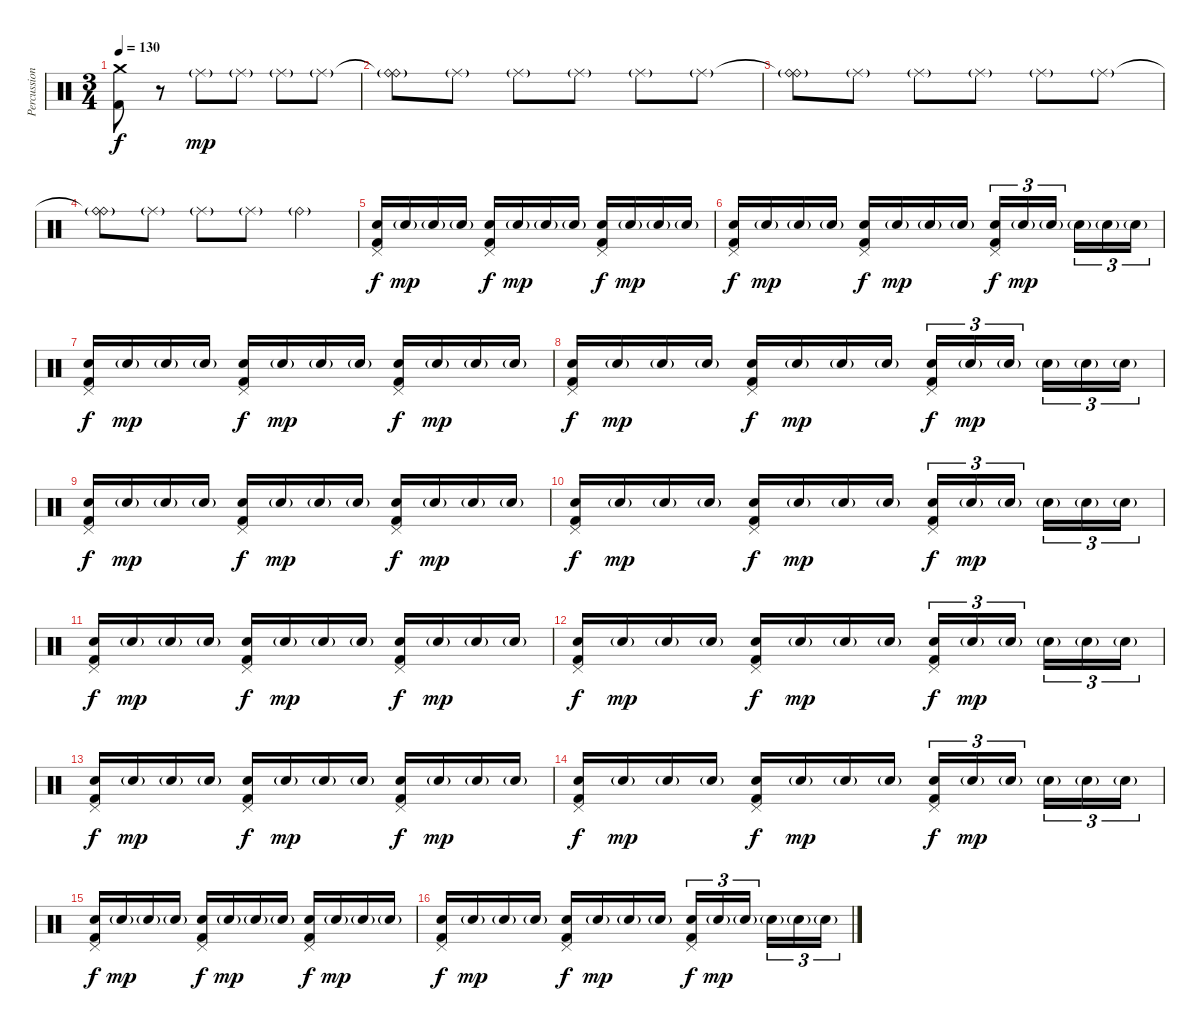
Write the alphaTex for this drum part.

\track ("Percussion" "Percussion") {instrument percussion}
\staff {score}
\articulation defaults
\ts (3 4)
\tempo 130
\clef neutral
\ks c
("Crash medium (hit)" "Kick (hit) 2").8{dy f} r.8 "Ride (middle)"{g}.8{dy mp} "Ride (middle)"{g}.8 "Ride (middle)"{g}.8 "Ride (middle)"{g}.8 |
("Ride (bell)"{t} "Ride (bell)"{g}).8 "Ride (middle)"{g}.8 "Ride (middle)"{g}.8 "Ride (middle)"{g}.8 "Ride (middle)"{g}.8 "Ride (middle)"{g}.8 |
("Ride (bell)"{t} "Ride (bell)"{g}).8 "Ride (middle)"{g}.8 "Ride (middle)"{g}.8 "Ride (middle)"{g}.8 "Ride (middle)"{g}.8 "Ride (middle)"{g}.8 |
("Ride (bell)"{t} "Ride (bell)"{g}).8 "Ride (middle)"{g}.8 "Ride (middle)"{g}.8 "Ride (middle)"{g}.8 "Ride (bell)"{g}.4 |
("Pedal Hi-Hat (hit)" "Electric Snare (hit)" "Kick (hit) 2").16{dy f volume 11} "Electric Snare (hit)"{g}.16{dy mp} "Electric Snare (hit)"{g}.16 "Electric Snare (hit)"{g}.16 ("Pedal Hi-Hat (hit)" "Electric Snare (hit)" "Kick (hit) 2").16{dy f} "Electric Snare (hit)"{g}.16{dy mp} "Electric Snare (hit)"{g}.16 "Electric Snare (hit)"{g}.16 ("Pedal Hi-Hat (hit)" "Electric Snare (hit)" "Kick (hit) 2").16{dy f} "Electric Snare (hit)"{g}.16{dy mp} "Electric Snare (hit)"{g}.16 "Electric Snare (hit)"{g}.16 |
("Pedal Hi-Hat (hit)" "Electric Snare (hit)" "Kick (hit) 2").16{dy f} "Electric Snare (hit)"{g}.16{dy mp} "Electric Snare (hit)"{g}.16 "Electric Snare (hit)"{g}.16 ("Pedal Hi-Hat (hit)" "Electric Snare (hit)" "Kick (hit) 2").16{dy f} "Electric Snare (hit)"{g}.16{dy mp} "Electric Snare (hit)"{g}.16 "Electric Snare (hit)"{g}.16 ("Pedal Hi-Hat (hit)" "Electric Snare (hit)" "Kick (hit) 2").16{tu (3 2) dy f} "Electric Snare (hit)"{g}.16{tu (3 2) dy mp} "Electric Snare (hit)"{g}.16{tu (3 2)} "Electric Snare (hit)"{g}.16{tu (3 2)} "Electric Snare (hit)"{g}.16{tu (3 2)} "Electric Snare (hit)"{g}.16{tu (3 2)} |
("Pedal Hi-Hat (hit)" "Electric Snare (hit)" "Kick (hit) 2").16{dy f volume 11} "Electric Snare (hit)"{g}.16{dy mp} "Electric Snare (hit)"{g}.16 "Electric Snare (hit)"{g}.16 ("Pedal Hi-Hat (hit)" "Electric Snare (hit)" "Kick (hit) 2").16{dy f} "Electric Snare (hit)"{g}.16{dy mp} "Electric Snare (hit)"{g}.16 "Electric Snare (hit)"{g}.16 ("Pedal Hi-Hat (hit)" "Electric Snare (hit)" "Kick (hit) 2").16{dy f} "Electric Snare (hit)"{g}.16{dy mp} "Electric Snare (hit)"{g}.16 "Electric Snare (hit)"{g}.16 |
("Pedal Hi-Hat (hit)" "Electric Snare (hit)" "Kick (hit) 2").16{dy f} "Electric Snare (hit)"{g}.16{dy mp} "Electric Snare (hit)"{g}.16 "Electric Snare (hit)"{g}.16 ("Pedal Hi-Hat (hit)" "Electric Snare (hit)" "Kick (hit) 2").16{dy f} "Electric Snare (hit)"{g}.16{dy mp} "Electric Snare (hit)"{g}.16 "Electric Snare (hit)"{g}.16 ("Pedal Hi-Hat (hit)" "Electric Snare (hit)" "Kick (hit) 2").16{tu (3 2) dy f} "Electric Snare (hit)"{g}.16{tu (3 2) dy mp} "Electric Snare (hit)"{g}.16{tu (3 2)} "Electric Snare (hit)"{g}.16{tu (3 2)} "Electric Snare (hit)"{g}.16{tu (3 2)} "Electric Snare (hit)"{g}.16{tu (3 2)} |
("Pedal Hi-Hat (hit)" "Electric Snare (hit)" "Kick (hit) 2").16{dy f volume 11} "Electric Snare (hit)"{g}.16{dy mp} "Electric Snare (hit)"{g}.16 "Electric Snare (hit)"{g}.16 ("Pedal Hi-Hat (hit)" "Electric Snare (hit)" "Kick (hit) 2").16{dy f} "Electric Snare (hit)"{g}.16{dy mp} "Electric Snare (hit)"{g}.16 "Electric Snare (hit)"{g}.16 ("Pedal Hi-Hat (hit)" "Electric Snare (hit)" "Kick (hit) 2").16{dy f} "Electric Snare (hit)"{g}.16{dy mp} "Electric Snare (hit)"{g}.16 "Electric Snare (hit)"{g}.16 |
("Pedal Hi-Hat (hit)" "Electric Snare (hit)" "Kick (hit) 2").16{dy f} "Electric Snare (hit)"{g}.16{dy mp} "Electric Snare (hit)"{g}.16 "Electric Snare (hit)"{g}.16 ("Pedal Hi-Hat (hit)" "Electric Snare (hit)" "Kick (hit) 2").16{dy f} "Electric Snare (hit)"{g}.16{dy mp} "Electric Snare (hit)"{g}.16 "Electric Snare (hit)"{g}.16 ("Pedal Hi-Hat (hit)" "Electric Snare (hit)" "Kick (hit) 2").16{tu (3 2) dy f} "Electric Snare (hit)"{g}.16{tu (3 2) dy mp} "Electric Snare (hit)"{g}.16{tu (3 2)} "Electric Snare (hit)"{g}.16{tu (3 2)} "Electric Snare (hit)"{g}.16{tu (3 2)} "Electric Snare (hit)"{g}.16{tu (3 2)} |
("Pedal Hi-Hat (hit)" "Electric Snare (hit)" "Kick (hit) 2").16{dy f volume 11} "Electric Snare (hit)"{g}.16{dy mp} "Electric Snare (hit)"{g}.16 "Electric Snare (hit)"{g}.16 ("Pedal Hi-Hat (hit)" "Electric Snare (hit)" "Kick (hit) 2").16{dy f} "Electric Snare (hit)"{g}.16{dy mp} "Electric Snare (hit)"{g}.16 "Electric Snare (hit)"{g}.16 ("Pedal Hi-Hat (hit)" "Electric Snare (hit)" "Kick (hit) 2").16{dy f} "Electric Snare (hit)"{g}.16{dy mp} "Electric Snare (hit)"{g}.16 "Electric Snare (hit)"{g}.16 |
("Pedal Hi-Hat (hit)" "Electric Snare (hit)" "Kick (hit) 2").16{dy f} "Electric Snare (hit)"{g}.16{dy mp} "Electric Snare (hit)"{g}.16 "Electric Snare (hit)"{g}.16 ("Pedal Hi-Hat (hit)" "Electric Snare (hit)" "Kick (hit) 2").16{dy f} "Electric Snare (hit)"{g}.16{dy mp} "Electric Snare (hit)"{g}.16 "Electric Snare (hit)"{g}.16 ("Pedal Hi-Hat (hit)" "Electric Snare (hit)" "Kick (hit) 2").16{tu (3 2) dy f} "Electric Snare (hit)"{g}.16{tu (3 2) dy mp} "Electric Snare (hit)"{g}.16{tu (3 2)} "Electric Snare (hit)"{g}.16{tu (3 2)} "Electric Snare (hit)"{g}.16{tu (3 2)} "Electric Snare (hit)"{g}.16{tu (3 2)} |
("Pedal Hi-Hat (hit)" "Electric Snare (hit)" "Kick (hit) 2").16{dy f volume 11} "Electric Snare (hit)"{g}.16{dy mp} "Electric Snare (hit)"{g}.16 "Electric Snare (hit)"{g}.16 ("Pedal Hi-Hat (hit)" "Electric Snare (hit)" "Kick (hit) 2").16{dy f} "Electric Snare (hit)"{g}.16{dy mp} "Electric Snare (hit)"{g}.16 "Electric Snare (hit)"{g}.16 ("Pedal Hi-Hat (hit)" "Electric Snare (hit)" "Kick (hit) 2").16{dy f} "Electric Snare (hit)"{g}.16{dy mp} "Electric Snare (hit)"{g}.16 "Electric Snare (hit)"{g}.16 |
("Pedal Hi-Hat (hit)" "Electric Snare (hit)" "Kick (hit) 2").16{dy f} "Electric Snare (hit)"{g}.16{dy mp} "Electric Snare (hit)"{g}.16 "Electric Snare (hit)"{g}.16 ("Pedal Hi-Hat (hit)" "Electric Snare (hit)" "Kick (hit) 2").16{dy f} "Electric Snare (hit)"{g}.16{dy mp} "Electric Snare (hit)"{g}.16 "Electric Snare (hit)"{g}.16 ("Pedal Hi-Hat (hit)" "Electric Snare (hit)" "Kick (hit) 2").16{tu (3 2) dy f} "Electric Snare (hit)"{g}.16{tu (3 2) dy mp} "Electric Snare (hit)"{g}.16{tu (3 2)} "Electric Snare (hit)"{g}.16{tu (3 2)} "Electric Snare (hit)"{g}.16{tu (3 2)} "Electric Snare (hit)"{g}.16{tu (3 2)} |
("Pedal Hi-Hat (hit)" "Electric Snare (hit)" "Kick (hit) 2").16{dy f volume 11} "Electric Snare (hit)"{g}.16{dy mp} "Electric Snare (hit)"{g}.16 "Electric Snare (hit)"{g}.16 ("Pedal Hi-Hat (hit)" "Electric Snare (hit)" "Kick (hit) 2").16{dy f} "Electric Snare (hit)"{g}.16{dy mp} "Electric Snare (hit)"{g}.16 "Electric Snare (hit)"{g}.16 ("Pedal Hi-Hat (hit)" "Electric Snare (hit)" "Kick (hit) 2").16{dy f} "Electric Snare (hit)"{g}.16{dy mp} "Electric Snare (hit)"{g}.16 "Electric Snare (hit)"{g}.16 |
("Pedal Hi-Hat (hit)" "Electric Snare (hit)" "Kick (hit) 2").16{dy f} "Electric Snare (hit)"{g}.16{dy mp} "Electric Snare (hit)"{g}.16 "Electric Snare (hit)"{g}.16 ("Pedal Hi-Hat (hit)" "Electric Snare (hit)" "Kick (hit) 2").16{dy f} "Electric Snare (hit)"{g}.16{dy mp} "Electric Snare (hit)"{g}.16 "Electric Snare (hit)"{g}.16 ("Pedal Hi-Hat (hit)" "Electric Snare (hit)" "Kick (hit) 2").16{tu (3 2) dy f} "Electric Snare (hit)"{g}.16{tu (3 2) dy mp} "Electric Snare (hit)"{g}.16{tu (3 2)} "Electric Snare (hit)"{g}.16{tu (3 2)} "Electric Snare (hit)"{g}.16{tu (3 2)} "Electric Snare (hit)"{g}.16{tu (3 2)}
